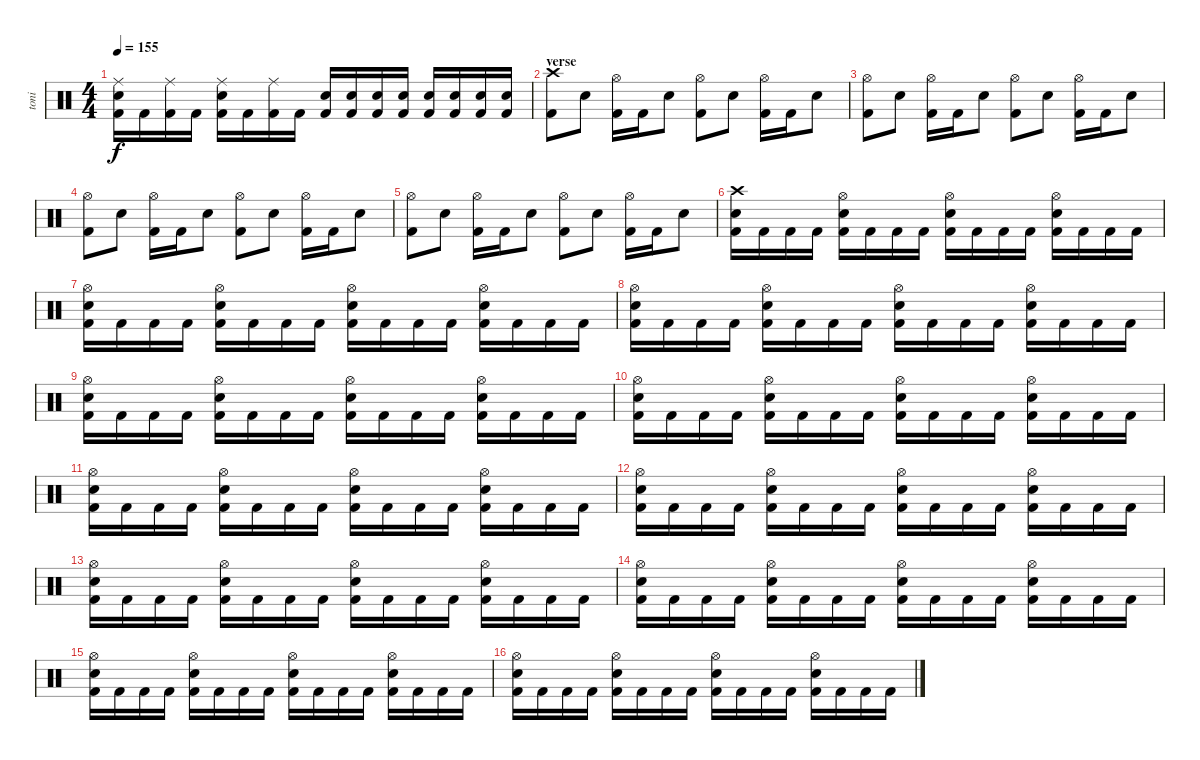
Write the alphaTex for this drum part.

\track ("toni" "toni") {instrument percussion}
\staff {score}
\articulation defaults
\ts (4 4)
\tempo 155
\clef neutral
\ks c
("Ride (middle)" "Snare (hit) 2" "Kick (hit) 2").16{dy f} "Kick (hit) 2".16 ("Ride (middle)" "Kick (hit) 2").16 "Kick (hit) 2".16 ("Ride (middle)" "Snare (hit) 2" "Kick (hit) 2").16 "Kick (hit) 2".16 ("Ride (middle)" "Kick (hit) 2").16 "Kick (hit) 2".16 ("Snare (hit) 2" "Kick (hit) 2").16 ("Snare (hit) 2" "Kick (hit) 2").16 ("Snare (hit) 2" "Kick (hit) 2").16 ("Snare (hit) 2" "Kick (hit) 2").16 ("Snare (hit) 2" "Kick (hit) 2").16 ("Snare (hit) 2" "Kick (hit) 2").16 ("Snare (hit) 2" "Kick (hit) 2").16 ("Snare (hit) 2" "Kick (hit) 2").16 |
\section ("" "verse")
("Crash high (hit)" "Kick (hit) 2").8 "Snare (hit) 2".8 ("Hi-Hat (open)" "Kick (hit) 2").16 "Kick (hit) 2".16 "Snare (hit) 2".8 ("Hi-Hat (open)" "Kick (hit) 2").8 "Snare (hit) 2".8 ("Hi-Hat (open)" "Kick (hit) 2").16 "Kick (hit) 2".16 "Snare (hit) 2".8 |
("Hi-Hat (open)" "Kick (hit) 2").8 "Snare (hit) 2".8 ("Hi-Hat (open)" "Kick (hit) 2").16 "Kick (hit) 2".16 "Snare (hit) 2".8 ("Hi-Hat (open)" "Kick (hit) 2").8 "Snare (hit) 2".8 ("Hi-Hat (open)" "Kick (hit) 2").16 "Kick (hit) 2".16 "Snare (hit) 2".8 |
("Hi-Hat (open)" "Kick (hit) 2").8 "Snare (hit) 2".8 ("Hi-Hat (open)" "Kick (hit) 2").16 "Kick (hit) 2".16 "Snare (hit) 2".8 ("Hi-Hat (open)" "Kick (hit) 2").8 "Snare (hit) 2".8 ("Hi-Hat (open)" "Kick (hit) 2").16 "Kick (hit) 2".16 "Snare (hit) 2".8 |
("Hi-Hat (open)" "Kick (hit) 2").8 "Snare (hit) 2".8 ("Hi-Hat (open)" "Kick (hit) 2").16 "Kick (hit) 2".16 "Snare (hit) 2".8 ("Hi-Hat (open)" "Kick (hit) 2").8 "Snare (hit) 2".8 ("Hi-Hat (open)" "Kick (hit) 2").16 "Kick (hit) 2".16 "Snare (hit) 2".8 |
("Crash high (hit)" "Snare (hit) 2" "Kick (hit) 2").16 "Kick (hit) 2".16 "Kick (hit) 2".16 "Kick (hit) 2".16 ("Hi-Hat (open)" "Snare (hit) 2" "Kick (hit) 2").16 "Kick (hit) 2".16 "Kick (hit) 2".16 "Kick (hit) 2".16 ("Hi-Hat (open)" "Snare (hit) 2" "Kick (hit) 2").16 "Kick (hit) 2".16 "Kick (hit) 2".16 "Kick (hit) 2".16 ("Hi-Hat (open)" "Snare (hit) 2" "Kick (hit) 2").16 "Kick (hit) 2".16 "Kick (hit) 2".16 "Kick (hit) 2".16 |
("Hi-Hat (open)" "Snare (hit) 2" "Kick (hit) 2").16 "Kick (hit) 2".16 "Kick (hit) 2".16 "Kick (hit) 2".16 ("Hi-Hat (open)" "Snare (hit) 2" "Kick (hit) 2").16 "Kick (hit) 2".16 "Kick (hit) 2".16 "Kick (hit) 2".16 ("Hi-Hat (open)" "Snare (hit) 2" "Kick (hit) 2").16 "Kick (hit) 2".16 "Kick (hit) 2".16 "Kick (hit) 2".16 ("Hi-Hat (open)" "Snare (hit) 2" "Kick (hit) 2").16 "Kick (hit) 2".16 "Kick (hit) 2".16 "Kick (hit) 2".16 |
("Hi-Hat (open)" "Snare (hit) 2" "Kick (hit) 2").16 "Kick (hit) 2".16 "Kick (hit) 2".16 "Kick (hit) 2".16 ("Hi-Hat (open)" "Snare (hit) 2" "Kick (hit) 2").16 "Kick (hit) 2".16 "Kick (hit) 2".16 "Kick (hit) 2".16 ("Hi-Hat (open)" "Snare (hit) 2" "Kick (hit) 2").16 "Kick (hit) 2".16 "Kick (hit) 2".16 "Kick (hit) 2".16 ("Hi-Hat (open)" "Snare (hit) 2" "Kick (hit) 2").16 "Kick (hit) 2".16 "Kick (hit) 2".16 "Kick (hit) 2".16 |
("Hi-Hat (open)" "Snare (hit) 2" "Kick (hit) 2").16 "Kick (hit) 2".16 "Kick (hit) 2".16 "Kick (hit) 2".16 ("Hi-Hat (open)" "Snare (hit) 2" "Kick (hit) 2").16 "Kick (hit) 2".16 "Kick (hit) 2".16 "Kick (hit) 2".16 ("Hi-Hat (open)" "Snare (hit) 2" "Kick (hit) 2").16 "Kick (hit) 2".16 "Kick (hit) 2".16 "Kick (hit) 2".16 ("Hi-Hat (open)" "Snare (hit) 2" "Kick (hit) 2").16 "Kick (hit) 2".16 "Kick (hit) 2".16 "Kick (hit) 2".16 |
("Hi-Hat (open)" "Snare (hit) 2" "Kick (hit) 2").16 "Kick (hit) 2".16 "Kick (hit) 2".16 "Kick (hit) 2".16 ("Hi-Hat (open)" "Snare (hit) 2" "Kick (hit) 2").16 "Kick (hit) 2".16 "Kick (hit) 2".16 "Kick (hit) 2".16 ("Hi-Hat (open)" "Snare (hit) 2" "Kick (hit) 2").16 "Kick (hit) 2".16 "Kick (hit) 2".16 "Kick (hit) 2".16 ("Hi-Hat (open)" "Snare (hit) 2" "Kick (hit) 2").16 "Kick (hit) 2".16 "Kick (hit) 2".16 "Kick (hit) 2".16 |
("Hi-Hat (open)" "Snare (hit) 2" "Kick (hit) 2").16 "Kick (hit) 2".16 "Kick (hit) 2".16 "Kick (hit) 2".16 ("Hi-Hat (open)" "Snare (hit) 2" "Kick (hit) 2").16 "Kick (hit) 2".16 "Kick (hit) 2".16 "Kick (hit) 2".16 ("Hi-Hat (open)" "Snare (hit) 2" "Kick (hit) 2").16 "Kick (hit) 2".16 "Kick (hit) 2".16 "Kick (hit) 2".16 ("Hi-Hat (open)" "Snare (hit) 2" "Kick (hit) 2").16 "Kick (hit) 2".16 "Kick (hit) 2".16 "Kick (hit) 2".16 |
("Hi-Hat (open)" "Snare (hit) 2" "Kick (hit) 2").16 "Kick (hit) 2".16 "Kick (hit) 2".16 "Kick (hit) 2".16 ("Hi-Hat (open)" "Snare (hit) 2" "Kick (hit) 2").16 "Kick (hit) 2".16 "Kick (hit) 2".16 "Kick (hit) 2".16 ("Hi-Hat (open)" "Snare (hit) 2" "Kick (hit) 2").16 "Kick (hit) 2".16 "Kick (hit) 2".16 "Kick (hit) 2".16 ("Hi-Hat (open)" "Snare (hit) 2" "Kick (hit) 2").16 "Kick (hit) 2".16 "Kick (hit) 2".16 "Kick (hit) 2".16 |
("Hi-Hat (open)" "Snare (hit) 2" "Kick (hit) 2").16 "Kick (hit) 2".16 "Kick (hit) 2".16 "Kick (hit) 2".16 ("Hi-Hat (open)" "Snare (hit) 2" "Kick (hit) 2").16 "Kick (hit) 2".16 "Kick (hit) 2".16 "Kick (hit) 2".16 ("Hi-Hat (open)" "Snare (hit) 2" "Kick (hit) 2").16 "Kick (hit) 2".16 "Kick (hit) 2".16 "Kick (hit) 2".16 ("Hi-Hat (open)" "Snare (hit) 2" "Kick (hit) 2").16 "Kick (hit) 2".16 "Kick (hit) 2".16 "Kick (hit) 2".16 |
("Hi-Hat (open)" "Snare (hit) 2" "Kick (hit) 2").16 "Kick (hit) 2".16 "Kick (hit) 2".16 "Kick (hit) 2".16 ("Hi-Hat (open)" "Snare (hit) 2" "Kick (hit) 2").16 "Kick (hit) 2".16 "Kick (hit) 2".16 "Kick (hit) 2".16 ("Hi-Hat (open)" "Snare (hit) 2" "Kick (hit) 2").16 "Kick (hit) 2".16 "Kick (hit) 2".16 "Kick (hit) 2".16 ("Hi-Hat (open)" "Snare (hit) 2" "Kick (hit) 2").16 "Kick (hit) 2".16 "Kick (hit) 2".16 "Kick (hit) 2".16 |
("Hi-Hat (open)" "Snare (hit) 2" "Kick (hit) 2").16 "Kick (hit) 2".16 "Kick (hit) 2".16 "Kick (hit) 2".16 ("Hi-Hat (open)" "Snare (hit) 2" "Kick (hit) 2").16 "Kick (hit) 2".16 "Kick (hit) 2".16 "Kick (hit) 2".16 ("Hi-Hat (open)" "Snare (hit) 2" "Kick (hit) 2").16 "Kick (hit) 2".16 "Kick (hit) 2".16 "Kick (hit) 2".16 ("Hi-Hat (open)" "Snare (hit) 2" "Kick (hit) 2").16 "Kick (hit) 2".16 "Kick (hit) 2".16 "Kick (hit) 2".16 |
("Hi-Hat (open)" "Snare (hit) 2" "Kick (hit) 2").16 "Kick (hit) 2".16 "Kick (hit) 2".16 "Kick (hit) 2".16 ("Hi-Hat (open)" "Snare (hit) 2" "Kick (hit) 2").16 "Kick (hit) 2".16 "Kick (hit) 2".16 "Kick (hit) 2".16 ("Hi-Hat (open)" "Snare (hit) 2" "Kick (hit) 2").16 "Kick (hit) 2".16 "Kick (hit) 2".16 "Kick (hit) 2".16 ("Hi-Hat (open)" "Snare (hit) 2" "Kick (hit) 2").16 "Kick (hit) 2".16 "Kick (hit) 2".16 "Kick (hit) 2".16
